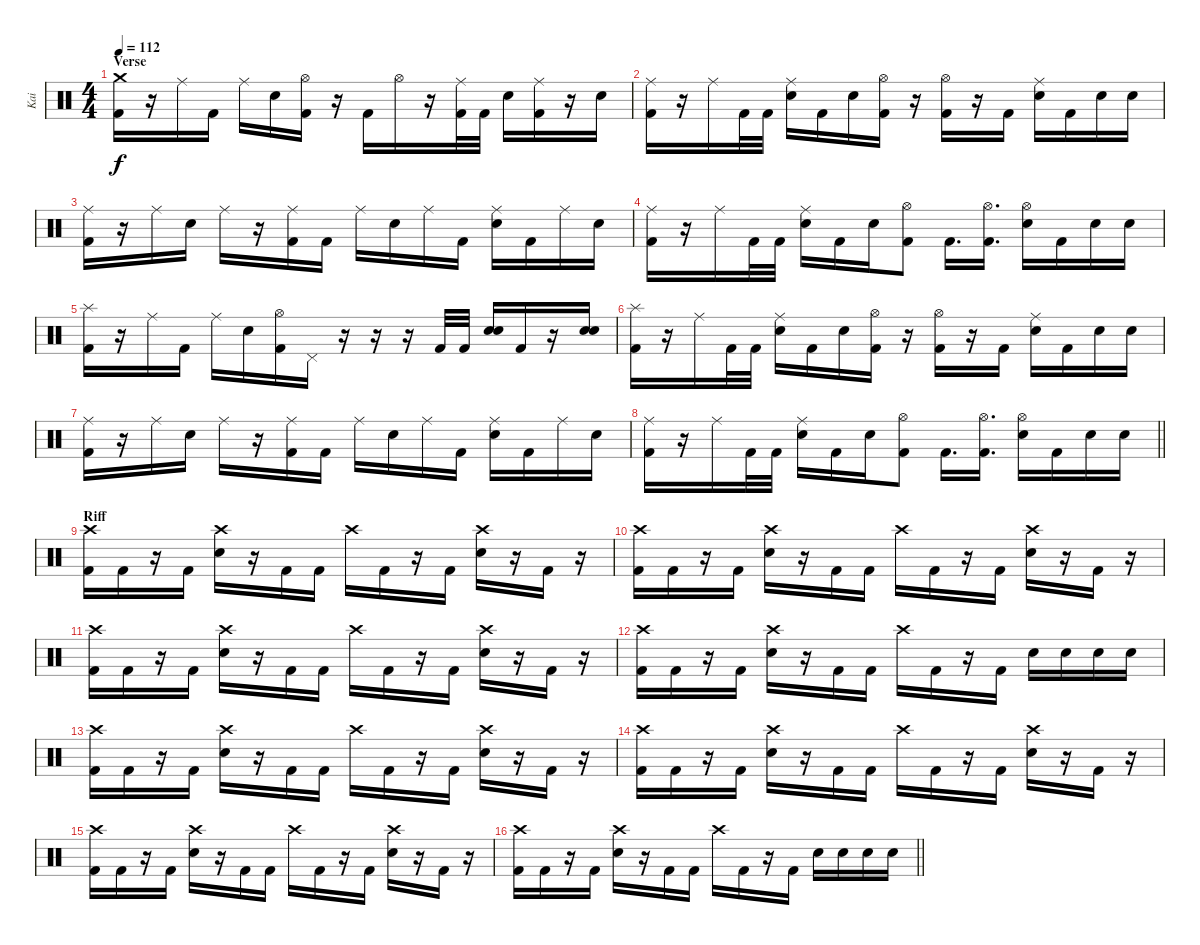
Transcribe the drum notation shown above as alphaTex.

\track ("Kai" "Kai") {mute instrument percussion}
\staff {score}
\articulation defaults
\ts (4 4)
\section ("" "Verse")
\tempo 112
\clef neutral
\ks c
("Crash medium (hit)" "Kick (hit) 2").16{dy f} r.16 "Ride (middle)".16 "Kick (hit) 2".16 "Ride (middle)".16 "Electric Snare (hit)".16 ("Hi-Hat (open)" "Kick (hit) 2").16 r.16 "Kick (hit) 2".16 "Hi-Hat (open)".16 r.16 ("Ride (middle)" "Kick (hit) 2").32 "Kick (hit) 2".32 "Electric Snare (hit)".16 ("Ride (middle)" "Kick (hit) 2").16 r.16 "Electric Snare (hit)".16 |
("Ride (middle)" "Kick (hit) 2").16 r.16 "Ride (middle)".16 "Kick (hit) 2".32 "Kick (hit) 2".32 ("Ride (middle)" "Electric Snare (hit)").16 "Kick (hit) 2".16 "Electric Snare (hit)".16 ("Hi-Hat (open)" "Kick (hit) 2").16 r.16 ("Hi-Hat (open)" "Kick (hit) 2").16 r.16 "Kick (hit) 2".16 ("Ride (middle)" "Electric Snare (hit)").16 "Kick (hit) 2".16 "Electric Snare (hit)".16 "Electric Snare (hit)".16 |
("Ride (middle)" "Kick (hit) 2").16 r.16 "Ride (middle)".16 "Electric Snare (hit)".16 "Ride (middle)".16 r.16 ("Ride (middle)" "Kick (hit) 2").16 "Kick (hit) 2".16 "Ride (middle)".16 "Electric Snare (hit)".16 "Ride (middle)".16 "Kick (hit) 2".16 ("Ride (middle)" "Electric Snare (hit)").16 "Kick (hit) 2".16 "Ride (middle)".16 "Electric Snare (hit)".16 |
("Ride (middle)" "Kick (hit) 2").16 r.16 "Ride (middle)".16 "Kick (hit) 2".32 "Kick (hit) 2".32 ("Ride (middle)" "Electric Snare (hit)").16 "Kick (hit) 2".16 "Electric Snare (hit)".16 ("Hi-Hat (open)" "Kick (hit) 2").8 "Kick (hit) 2".16{d} ("Hi-Hat (open)" "Kick (hit) 2").16{d} ("Hi-Hat (open)" "Electric Snare (hit)").16 "Kick (hit) 2".16 "Electric Snare (hit)".16 "Electric Snare (hit)".16 |
("Splash (hit)" "Kick (hit) 2").16 r.16 "Ride (middle)".16 "Kick (hit) 2".16 "Ride (middle)".16 "Electric Snare (hit)".16 ("Hi-Hat (open)" "Kick (hit) 2").16 "Pedal Hi-Hat (hit)".16 r.16 r.16 r.16 "Kick (hit) 2".32 "Kick (hit) 2".32 ("Electric Snare (hit)" "Electric Snare (hit)").16 "Kick (hit) 2".16 r.16 ("Electric Snare (hit)" "Electric Snare (hit)").16 |
("Splash (hit)" "Kick (hit) 2").16 r.16 "Ride (middle)".16 "Kick (hit) 2".32 "Kick (hit) 2".32 ("Ride (middle)" "Electric Snare (hit)").16 "Kick (hit) 2".16 "Electric Snare (hit)".16 ("Hi-Hat (open)" "Kick (hit) 2").16 r.16 ("Hi-Hat (open)" "Kick (hit) 2").16 r.16 "Kick (hit) 2".16 ("Ride (middle)" "Electric Snare (hit)").16 "Kick (hit) 2".16 "Electric Snare (hit)".16 "Electric Snare (hit)".16 |
("Ride (middle)" "Kick (hit) 2").16 r.16 "Ride (middle)".16 "Electric Snare (hit)".16 "Ride (middle)".16 r.16 ("Ride (middle)" "Kick (hit) 2").16 "Kick (hit) 2".16 "Ride (middle)".16 "Electric Snare (hit)".16 "Ride (middle)".16 "Kick (hit) 2".16 ("Ride (middle)" "Electric Snare (hit)").16 "Kick (hit) 2".16 "Ride (middle)".16 "Electric Snare (hit)".16 |
\barLineRight lightlight
("Ride (middle)" "Kick (hit) 2").16 r.16 "Ride (middle)".16 "Kick (hit) 2".32 "Kick (hit) 2".32 ("Ride (middle)" "Electric Snare (hit)").16 "Kick (hit) 2".16 "Electric Snare (hit)".16 ("Hi-Hat (open)" "Kick (hit) 2").8 "Kick (hit) 2".16{d} ("Hi-Hat (open)" "Kick (hit) 2").16{d} ("Hi-Hat (open)" "Electric Snare (hit)").16 "Kick (hit) 2".16 "Electric Snare (hit)".16 "Electric Snare (hit)".16 |
\section ("" "Riff")
("Crash high (hit)" "Kick (hit) 2").16 "Kick (hit) 2".16 r.16 "Kick (hit) 2".16 ("Crash high (hit)" "Electric Snare (hit)").16 r.16 "Kick (hit) 2".16 "Kick (hit) 2".16 "Crash high (hit)".16 "Kick (hit) 2".16 r.16 "Kick (hit) 2".16 ("Crash high (hit)" "Electric Snare (hit)").16 r.16 "Kick (hit) 2".16 r.16 |
("Crash high (hit)" "Kick (hit) 2").16 "Kick (hit) 2".16 r.16 "Kick (hit) 2".16 ("Crash high (hit)" "Electric Snare (hit)").16 r.16 "Kick (hit) 2".16 "Kick (hit) 2".16 "Crash high (hit)".16 "Kick (hit) 2".16 r.16 "Kick (hit) 2".16 ("Crash high (hit)" "Electric Snare (hit)").16 r.16 "Kick (hit) 2".16 r.16 |
("Crash high (hit)" "Kick (hit) 2").16 "Kick (hit) 2".16 r.16 "Kick (hit) 2".16 ("Crash high (hit)" "Electric Snare (hit)").16 r.16 "Kick (hit) 2".16 "Kick (hit) 2".16 "Crash high (hit)".16 "Kick (hit) 2".16 r.16 "Kick (hit) 2".16 ("Crash high (hit)" "Electric Snare (hit)").16 r.16 "Kick (hit) 2".16 r.16 |
("Crash high (hit)" "Kick (hit) 2").16 "Kick (hit) 2".16 r.16 "Kick (hit) 2".16 ("Crash high (hit)" "Electric Snare (hit)").16 r.16 "Kick (hit) 2".16 "Kick (hit) 2".16 "Crash high (hit)".16 "Kick (hit) 2".16 r.16 "Kick (hit) 2".16 "Electric Snare (hit)".16 "Electric Snare (hit)".16 "Electric Snare (hit)".16 "Electric Snare (hit)".16 |
("Crash high (hit)" "Kick (hit) 2").16 "Kick (hit) 2".16 r.16 "Kick (hit) 2".16 ("Crash high (hit)" "Electric Snare (hit)").16 r.16 "Kick (hit) 2".16 "Kick (hit) 2".16 "Crash high (hit)".16 "Kick (hit) 2".16 r.16 "Kick (hit) 2".16 ("Crash high (hit)" "Electric Snare (hit)").16 r.16 "Kick (hit) 2".16 r.16 |
("Crash high (hit)" "Kick (hit) 2").16 "Kick (hit) 2".16 r.16 "Kick (hit) 2".16 ("Crash high (hit)" "Electric Snare (hit)").16 r.16 "Kick (hit) 2".16 "Kick (hit) 2".16 "Crash high (hit)".16 "Kick (hit) 2".16 r.16 "Kick (hit) 2".16 ("Crash high (hit)" "Electric Snare (hit)").16 r.16 "Kick (hit) 2".16 r.16 |
("Crash high (hit)" "Kick (hit) 2").16 "Kick (hit) 2".16 r.16 "Kick (hit) 2".16 ("Crash high (hit)" "Electric Snare (hit)").16 r.16 "Kick (hit) 2".16 "Kick (hit) 2".16 "Crash high (hit)".16 "Kick (hit) 2".16 r.16 "Kick (hit) 2".16 ("Crash high (hit)" "Electric Snare (hit)").16 r.16 "Kick (hit) 2".16 r.16 |
\barLineRight lightlight
("Crash high (hit)" "Kick (hit) 2").16 "Kick (hit) 2".16 r.16 "Kick (hit) 2".16 ("Crash high (hit)" "Electric Snare (hit)").16 r.16 "Kick (hit) 2".16 "Kick (hit) 2".16 "Crash high (hit)".16 "Kick (hit) 2".16 r.16 "Kick (hit) 2".16 "Electric Snare (hit)".16 "Electric Snare (hit)".16 "Electric Snare (hit)".16 "Electric Snare (hit)".16
